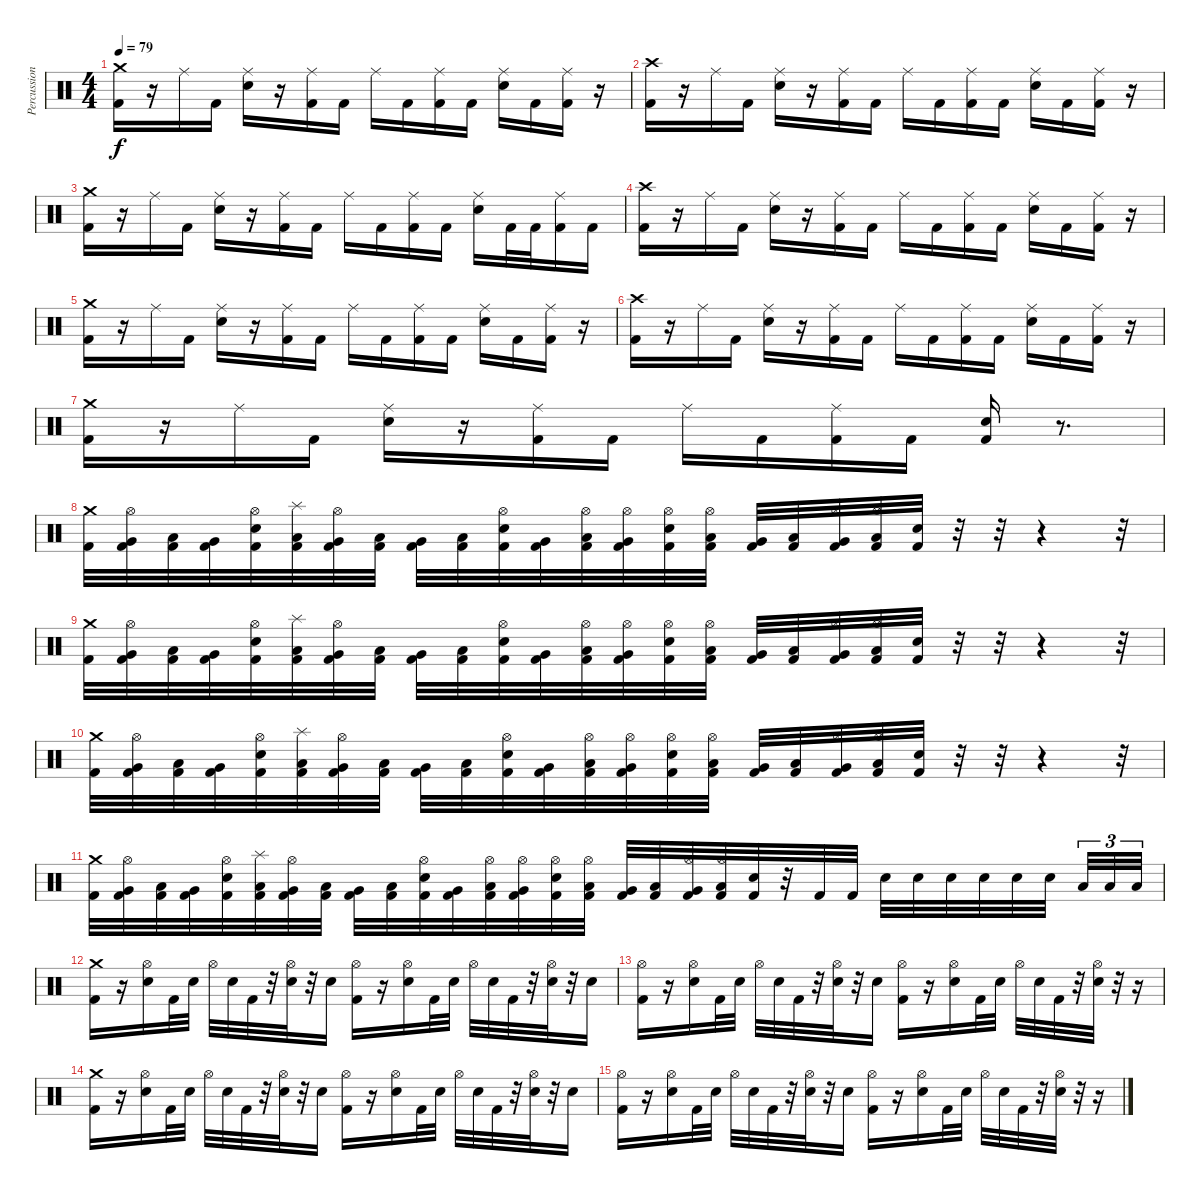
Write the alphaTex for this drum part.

\track ("Percussion" "Percussion") {instrument percussion}
\staff {score}
\articulation defaults
\ts (4 4)
\tempo 79
\clef neutral
\ks c
("Crash medium (hit)" "Kick (hit) 2").16{dy f} r.16 "Ride (middle)".16 "Kick (hit) 2".16 ("Ride (middle)" "Electric Snare (hit)").16 r.16 ("Ride (middle)" "Kick (hit) 2").16 "Kick (hit) 2".16 "Ride (middle)".16 "Kick (hit) 2".16 ("Ride (middle)" "Kick (hit) 2").16 "Kick (hit) 2".16 ("Ride (middle)" "Electric Snare (hit)").16 "Kick (hit) 2".16 ("Ride (middle)" "Kick (hit) 2").16 r.16 |
("Crash high (hit)" "Kick (hit) 2").16 r.16 "Ride (middle)".16 "Kick (hit) 2".16 ("Ride (middle)" "Electric Snare (hit)").16 r.16 ("Ride (middle)" "Kick (hit) 2").16 "Kick (hit) 2".16 "Ride (middle)".16 "Kick (hit) 2".16 ("Ride (middle)" "Kick (hit) 2").16 "Kick (hit) 2".16 ("Ride (middle)" "Electric Snare (hit)").16 "Kick (hit) 2".16 ("Ride (middle)" "Kick (hit) 2").16 r.16 |
("Crash medium (hit)" "Kick (hit) 2").16 r.16 "Ride (middle)".16 "Kick (hit) 2".16 ("Ride (middle)" "Electric Snare (hit)").16 r.16 ("Ride (middle)" "Kick (hit) 2").16 "Kick (hit) 2".16 "Ride (middle)".16 "Kick (hit) 2".16 ("Ride (middle)" "Kick (hit) 2").16 "Kick (hit) 2".16 ("Ride (middle)" "Electric Snare (hit)").16 "Kick (hit) 2".32 "Kick (hit) 2".32 ("Ride (middle)" "Kick (hit) 2").16 "Kick (hit) 2".16 |
("Crash high (hit)" "Kick (hit) 2").16 r.16 "Ride (middle)".16 "Kick (hit) 2".16 ("Ride (middle)" "Electric Snare (hit)").16 r.16 ("Ride (middle)" "Kick (hit) 2").16 "Kick (hit) 2".16 "Ride (middle)".16 "Kick (hit) 2".16 ("Ride (middle)" "Kick (hit) 2").16 "Kick (hit) 2".16 ("Ride (middle)" "Electric Snare (hit)").16 "Kick (hit) 2".16 ("Ride (middle)" "Kick (hit) 2").16 r.16 |
("Crash medium (hit)" "Kick (hit) 2").16 r.16 "Ride (middle)".16 "Kick (hit) 2".16 ("Ride (middle)" "Electric Snare (hit)").16 r.16 ("Ride (middle)" "Kick (hit) 2").16 "Kick (hit) 2".16 "Ride (middle)".16 "Kick (hit) 2".16 ("Ride (middle)" "Kick (hit) 2").16 "Kick (hit) 2".16 ("Ride (middle)" "Electric Snare (hit)").16 "Kick (hit) 2".16 ("Ride (middle)" "Kick (hit) 2").16 r.16 |
("Crash high (hit)" "Kick (hit) 2").16 r.16 "Ride (middle)".16 "Kick (hit) 2".16 ("Ride (middle)" "Electric Snare (hit)").16 r.16 ("Ride (middle)" "Kick (hit) 2").16 "Kick (hit) 2".16 "Ride (middle)".16 "Kick (hit) 2".16 ("Ride (middle)" "Kick (hit) 2").16 "Kick (hit) 2".16 ("Ride (middle)" "Electric Snare (hit)").16 "Kick (hit) 2".16 ("Ride (middle)" "Kick (hit) 2").16 r.16 |
("Crash medium (hit)" "Kick (hit) 2").16 r.16 "Ride (middle)".16 "Kick (hit) 2".16 ("Ride (middle)" "Electric Snare (hit)").16 r.16 ("Ride (middle)" "Kick (hit) 2").16 "Kick (hit) 2".16 "Ride (middle)".16 "Kick (hit) 2".16 ("Ride (middle)" "Kick (hit) 2").16 "Kick (hit) 2".16 ("Electric Snare (hit)" "Kick (hit) 2").16 r.8{d} |
("Crash medium (hit)" "Kick (hit) 2").32 ("Hi-Hat (open)" "Very Low Tom (hit)" "Kick (hit) 2").32 ("Low Tom (hit)" "Kick (hit) 2").32 ("Very Low Tom (hit)" "Kick (hit) 2").32 ("Hi-Hat (open)" "Electric Snare (hit)" "Kick (hit) 2").32 ("Splash (hit)" "Low Tom (hit)" "Kick (hit) 2").32 ("Hi-Hat (open)" "Very Low Tom (hit)" "Kick (hit) 2").32 ("Low Tom (hit)" "Kick (hit) 2").32 ("Very Low Tom (hit)" "Kick (hit) 2").32 ("Low Tom (hit)" "Kick (hit) 2").32 ("Hi-Hat (open)" "Electric Snare (hit)" "Kick (hit) 2").32 ("Very Low Tom (hit)" "Kick (hit) 2").32 ("Hi-Hat (open)" "Low Tom (hit)" "Kick (hit) 2").32 ("Hi-Hat (open)" "Very Low Tom (hit)" "Kick (hit) 2").32 ("Hi-Hat (open)" "Electric Snare (hit)" "Kick (hit) 2").32 ("Hi-Hat (open)" "Low Tom (hit)" "Kick (hit) 2").32 ("Very Low Tom (hit)" "Kick (hit) 2").32 ("Low Tom (hit)" "Kick (hit) 2").32 ("Hi-Hat (open)" "Very Low Tom (hit)" "Kick (hit) 2").32 ("Hi-Hat (open)" "Low Tom (hit)" "Kick (hit) 2").32 ("Electric Snare (hit)" "Kick (hit) 2").32 r.32 r.32 r.4 r.32 |
("Crash medium (hit)" "Kick (hit) 2").32 ("Hi-Hat (open)" "Very Low Tom (hit)" "Kick (hit) 2").32 ("Low Tom (hit)" "Kick (hit) 2").32 ("Very Low Tom (hit)" "Kick (hit) 2").32 ("Hi-Hat (open)" "Electric Snare (hit)" "Kick (hit) 2").32 ("Splash (hit)" "Low Tom (hit)" "Kick (hit) 2").32 ("Hi-Hat (open)" "Very Low Tom (hit)" "Kick (hit) 2").32 ("Low Tom (hit)" "Kick (hit) 2").32 ("Very Low Tom (hit)" "Kick (hit) 2").32 ("Low Tom (hit)" "Kick (hit) 2").32 ("Hi-Hat (open)" "Electric Snare (hit)" "Kick (hit) 2").32 ("Very Low Tom (hit)" "Kick (hit) 2").32 ("Hi-Hat (open)" "Low Tom (hit)" "Kick (hit) 2").32 ("Hi-Hat (open)" "Very Low Tom (hit)" "Kick (hit) 2").32 ("Hi-Hat (open)" "Electric Snare (hit)" "Kick (hit) 2").32 ("Hi-Hat (open)" "Low Tom (hit)" "Kick (hit) 2").32 ("Very Low Tom (hit)" "Kick (hit) 2").32 ("Low Tom (hit)" "Kick (hit) 2").32 ("Hi-Hat (open)" "Very Low Tom (hit)" "Kick (hit) 2").32 ("Hi-Hat (open)" "Low Tom (hit)" "Kick (hit) 2").32 ("Electric Snare (hit)" "Kick (hit) 2").32 r.32 r.32 r.4 r.32 |
("Crash medium (hit)" "Kick (hit) 2").32 ("Hi-Hat (open)" "Very Low Tom (hit)" "Kick (hit) 2").32 ("Low Tom (hit)" "Kick (hit) 2").32 ("Very Low Tom (hit)" "Kick (hit) 2").32 ("Hi-Hat (open)" "Electric Snare (hit)" "Kick (hit) 2").32 ("Splash (hit)" "Low Tom (hit)" "Kick (hit) 2").32 ("Hi-Hat (open)" "Very Low Tom (hit)" "Kick (hit) 2").32 ("Low Tom (hit)" "Kick (hit) 2").32 ("Very Low Tom (hit)" "Kick (hit) 2").32 ("Low Tom (hit)" "Kick (hit) 2").32 ("Hi-Hat (open)" "Electric Snare (hit)" "Kick (hit) 2").32 ("Very Low Tom (hit)" "Kick (hit) 2").32 ("Hi-Hat (open)" "Low Tom (hit)" "Kick (hit) 2").32 ("Hi-Hat (open)" "Very Low Tom (hit)" "Kick (hit) 2").32 ("Hi-Hat (open)" "Electric Snare (hit)" "Kick (hit) 2").32 ("Hi-Hat (open)" "Low Tom (hit)" "Kick (hit) 2").32 ("Very Low Tom (hit)" "Kick (hit) 2").32 ("Low Tom (hit)" "Kick (hit) 2").32 ("Hi-Hat (open)" "Very Low Tom (hit)" "Kick (hit) 2").32 ("Hi-Hat (open)" "Low Tom (hit)" "Kick (hit) 2").32 ("Electric Snare (hit)" "Kick (hit) 2").32 r.32 r.32 r.4 r.32 |
("Crash medium (hit)" "Kick (hit) 2").32 ("Hi-Hat (open)" "Very Low Tom (hit)" "Kick (hit) 2").32 ("Low Tom (hit)" "Kick (hit) 2").32 ("Very Low Tom (hit)" "Kick (hit) 2").32 ("Hi-Hat (open)" "Electric Snare (hit)" "Kick (hit) 2").32 ("Splash (hit)" "Low Tom (hit)" "Kick (hit) 2").32 ("Hi-Hat (open)" "Very Low Tom (hit)" "Kick (hit) 2").32 ("Low Tom (hit)" "Kick (hit) 2").32 ("Very Low Tom (hit)" "Kick (hit) 2").32 ("Low Tom (hit)" "Kick (hit) 2").32 ("Hi-Hat (open)" "Electric Snare (hit)" "Kick (hit) 2").32 ("Very Low Tom (hit)" "Kick (hit) 2").32 ("Hi-Hat (open)" "Low Tom (hit)" "Kick (hit) 2").32 ("Hi-Hat (open)" "Very Low Tom (hit)" "Kick (hit) 2").32 ("Hi-Hat (open)" "Electric Snare (hit)" "Kick (hit) 2").32 ("Hi-Hat (open)" "Low Tom (hit)" "Kick (hit) 2").32 ("Very Low Tom (hit)" "Kick (hit) 2").32 ("Low Tom (hit)" "Kick (hit) 2").32 ("Hi-Hat (open)" "Very Low Tom (hit)" "Kick (hit) 2").32 ("Hi-Hat (open)" "Low Tom (hit)" "Kick (hit) 2").32 ("Electric Snare (hit)" "Kick (hit) 2").32 r.32 "Kick (hit) 2".32 "Kick (hit) 2".32 "Electric Snare (hit)".32 "Electric Snare (hit)".32 "Electric Snare (hit)".32 "Electric Snare (hit)".32 "Electric Snare (hit)".32 "Electric Snare (hit)".32{beam splitsecondary} "Low Tom (hit)".32{tu (3 2)} "Low Tom (hit)".32{tu (3 2)} "Low Tom (hit)".32{tu (3 2)} |
("Crash medium (hit)" "Kick (hit) 2").16 r.16 ("Hi-Hat (open)" "Electric Snare (hit)").16 "Kick (hit) 2".32 "Electric Snare (hit)".32 "Hi-Hat (open)".32 "Electric Snare (hit)".32 "Kick (hit) 2".32 r.32 ("Hi-Hat (open)" "Electric Snare (hit)").32 r.32 "Electric Snare (hit)".16 ("Hi-Hat (open)" "Kick (hit) 2").16 r.16 ("Hi-Hat (open)" "Electric Snare (hit)").16 "Kick (hit) 2".32 "Electric Snare (hit)".32 "Hi-Hat (open)".32 "Electric Snare (hit)".32 "Kick (hit) 2".32 r.32 ("Hi-Hat (open)" "Electric Snare (hit)").32 r.32 "Electric Snare (hit)".16 |
("Hi-Hat (open)" "Kick (hit) 2").16 r.16 ("Hi-Hat (open)" "Electric Snare (hit)").16 "Kick (hit) 2".32 "Electric Snare (hit)".32 "Hi-Hat (open)".32 "Electric Snare (hit)".32 "Kick (hit) 2".32 r.32 ("Hi-Hat (open)" "Electric Snare (hit)").32 r.32 "Electric Snare (hit)".16 ("Hi-Hat (open)" "Kick (hit) 2").16 r.16 ("Hi-Hat (open)" "Electric Snare (hit)").16 "Kick (hit) 2".32 "Electric Snare (hit)".32 "Hi-Hat (open)".32 "Electric Snare (hit)".32 "Kick (hit) 2".32 r.32 ("Hi-Hat (open)" "Electric Snare (hit)").32 r.32 r.16 |
("Crash medium (hit)" "Kick (hit) 2").16 r.16 ("Hi-Hat (open)" "Electric Snare (hit)").16 "Kick (hit) 2".32 "Electric Snare (hit)".32 "Hi-Hat (open)".32 "Electric Snare (hit)".32 "Kick (hit) 2".32 r.32 ("Hi-Hat (open)" "Electric Snare (hit)").32 r.32 "Electric Snare (hit)".16 ("Hi-Hat (open)" "Kick (hit) 2").16 r.16 ("Hi-Hat (open)" "Electric Snare (hit)").16 "Kick (hit) 2".32 "Electric Snare (hit)".32 "Hi-Hat (open)".32 "Electric Snare (hit)".32 "Kick (hit) 2".32 r.32 ("Hi-Hat (open)" "Electric Snare (hit)").32 r.32 "Electric Snare (hit)".16 |
("Hi-Hat (open)" "Kick (hit) 2").16 r.16 ("Hi-Hat (open)" "Electric Snare (hit)").16 "Kick (hit) 2".32 "Electric Snare (hit)".32 "Hi-Hat (open)".32 "Electric Snare (hit)".32 "Kick (hit) 2".32 r.32 ("Hi-Hat (open)" "Electric Snare (hit)").32 r.32 "Electric Snare (hit)".16 ("Hi-Hat (open)" "Kick (hit) 2").16 r.16 ("Hi-Hat (open)" "Electric Snare (hit)").16 "Kick (hit) 2".32 "Electric Snare (hit)".32 "Hi-Hat (open)".32 "Electric Snare (hit)".32 "Kick (hit) 2".32 r.32 ("Hi-Hat (open)" "Electric Snare (hit)").32 r.32 r.16
